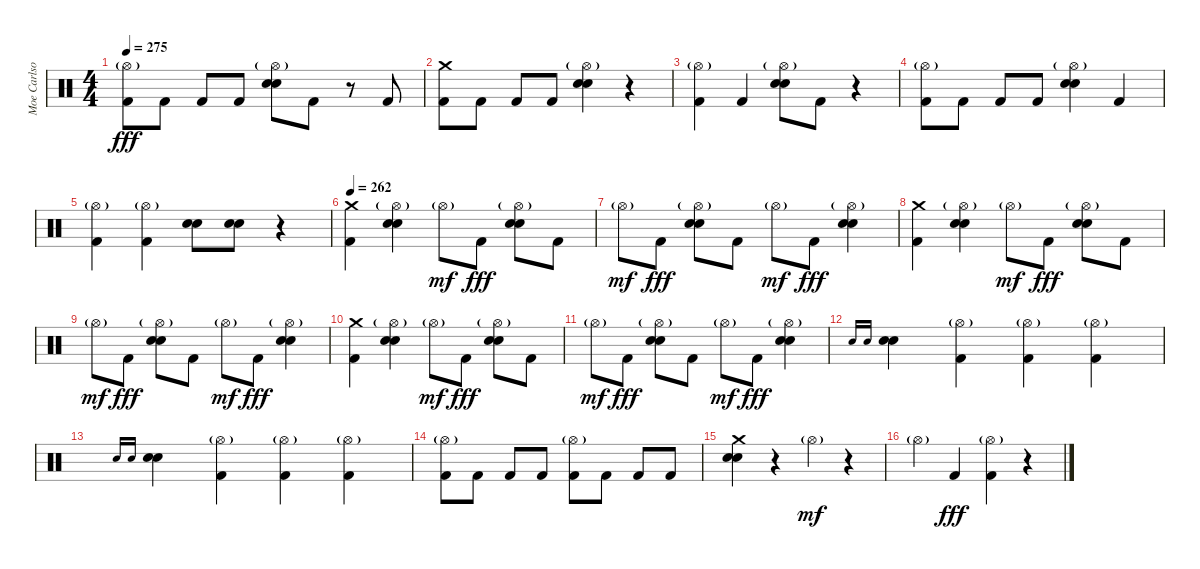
\track ("Moe Carlson" "Moe Carlso") {instrument percussion}
\staff {score}
\articulation defaults
\ts (4 4)
\tempo 275
\clef neutral
\ks c
("Hi-Hat (open)"{g} "Kick (hit) 2").8{dy fff} "Kick (hit) 2".8 "Kick (hit) 2".8 "Kick (hit) 2".8 ("Hi-Hat (open)"{g} "Snare (hit) 2" "Electric Snare (hit)").8 "Kick (hit) 2".8 r.8 "Kick (hit) 2".8 |
("Crash medium (hit)" "Kick (hit) 2").8 "Kick (hit) 2".8 "Kick (hit) 2".8 "Kick (hit) 2".8 ("Hi-Hat (open)"{g} "Snare (hit) 2" "Electric Snare (hit)").4 r.4 |
("Hi-Hat (open)"{g} "Kick (hit) 2").4 "Kick (hit) 2".4 ("Hi-Hat (open)"{g} "Snare (hit) 2" "Electric Snare (hit)").8 "Kick (hit) 2".8 r.4 |
("Hi-Hat (open)"{g} "Kick (hit) 2").8 "Kick (hit) 2".8 "Kick (hit) 2".8 "Kick (hit) 2".8 ("Hi-Hat (open)"{g} "Snare (hit) 2" "Electric Snare (hit)").4 "Kick (hit) 2".4 |
("Hi-Hat (open)"{g} "Kick (hit) 2").4 ("Hi-Hat (open)"{g} "Kick (hit) 2").4 ("Snare (hit) 2" "Electric Snare (hit)").8 ("Snare (hit) 2" "Electric Snare (hit)").8 r.4 |
\tempo 262
("Crash medium (hit)" "Kick (hit) 2").4 ("Hi-Hat (open)"{g} "Snare (hit) 2" "Electric Snare (hit)").4 "Hi-Hat (open)"{g}.8{dy mf} "Kick (hit) 2".8{dy fff} ("Hi-Hat (open)"{g} "Snare (hit) 2" "Electric Snare (hit)").8 "Kick (hit) 2".8 |
"Hi-Hat (open)"{g}.8{dy mf} "Kick (hit) 2".8{dy fff} ("Hi-Hat (open)"{g} "Snare (hit) 2" "Electric Snare (hit)").8 "Kick (hit) 2".8 "Hi-Hat (open)"{g}.8{dy mf} "Kick (hit) 2".8{dy fff} ("Hi-Hat (open)"{g} "Snare (hit) 2" "Electric Snare (hit)").4 |
("Crash medium (hit)" "Kick (hit) 2").4 ("Hi-Hat (open)"{g} "Snare (hit) 2" "Electric Snare (hit)").4 "Hi-Hat (open)"{g}.8{dy mf} "Kick (hit) 2".8{dy fff} ("Hi-Hat (open)"{g} "Snare (hit) 2" "Electric Snare (hit)").8 "Kick (hit) 2".8 |
"Hi-Hat (open)"{g}.8{dy mf} "Kick (hit) 2".8{dy fff} ("Hi-Hat (open)"{g} "Snare (hit) 2" "Electric Snare (hit)").8 "Kick (hit) 2".8 "Hi-Hat (open)"{g}.8{dy mf} "Kick (hit) 2".8{dy fff} ("Hi-Hat (open)"{g} "Snare (hit) 2" "Electric Snare (hit)").4 |
("Crash medium (hit)" "Kick (hit) 2").4 ("Hi-Hat (open)"{g} "Snare (hit) 2" "Electric Snare (hit)").4 "Hi-Hat (open)"{g}.8{dy mf} "Kick (hit) 2".8{dy fff} ("Hi-Hat (open)"{g} "Snare (hit) 2" "Electric Snare (hit)").8 "Kick (hit) 2".8 |
"Hi-Hat (open)"{g}.8{dy mf} "Kick (hit) 2".8{dy fff} ("Hi-Hat (open)"{g} "Snare (hit) 2" "Electric Snare (hit)").8 "Kick (hit) 2".8 "Hi-Hat (open)"{g}.8{dy mf} "Kick (hit) 2".8{dy fff} ("Hi-Hat (open)"{g} "Snare (hit) 2" "Electric Snare (hit)").4 |
"Snare (hit) 2".16{gr onbeat} "Electric Snare (hit)".16{gr onbeat} ("Snare (hit) 2" "Electric Snare (hit)").4 ("Hi-Hat (open)"{g} "Kick (hit) 2").4 ("Hi-Hat (open)"{g} "Kick (hit) 2").4 ("Hi-Hat (open)"{g} "Kick (hit) 2").4 |
"Snare (hit) 2".16{gr onbeat} "Electric Snare (hit)".16{gr onbeat} ("Snare (hit) 2" "Electric Snare (hit)").4 ("Hi-Hat (open)"{g} "Kick (hit) 2").4 ("Hi-Hat (open)"{g} "Kick (hit) 2").4 ("Hi-Hat (open)"{g} "Kick (hit) 2").4 |
("Hi-Hat (open)"{g} "Kick (hit) 2").8 "Kick (hit) 2".8 "Kick (hit) 2".8 "Kick (hit) 2".8 ("Hi-Hat (open)"{g} "Kick (hit) 2").8 "Kick (hit) 2".8 "Kick (hit) 2".8 "Kick (hit) 2".8 |
("Crash medium (hit)" "Snare (hit) 2" "Electric Snare (hit)").4 r.4 "Hi-Hat (open)"{g}.4{dy mf} r.4 |
"Hi-Hat (open)"{g}.4 "Kick (hit) 2".4{dy fff} ("Hi-Hat (open)"{g} "Kick (hit) 2").4 r.4
